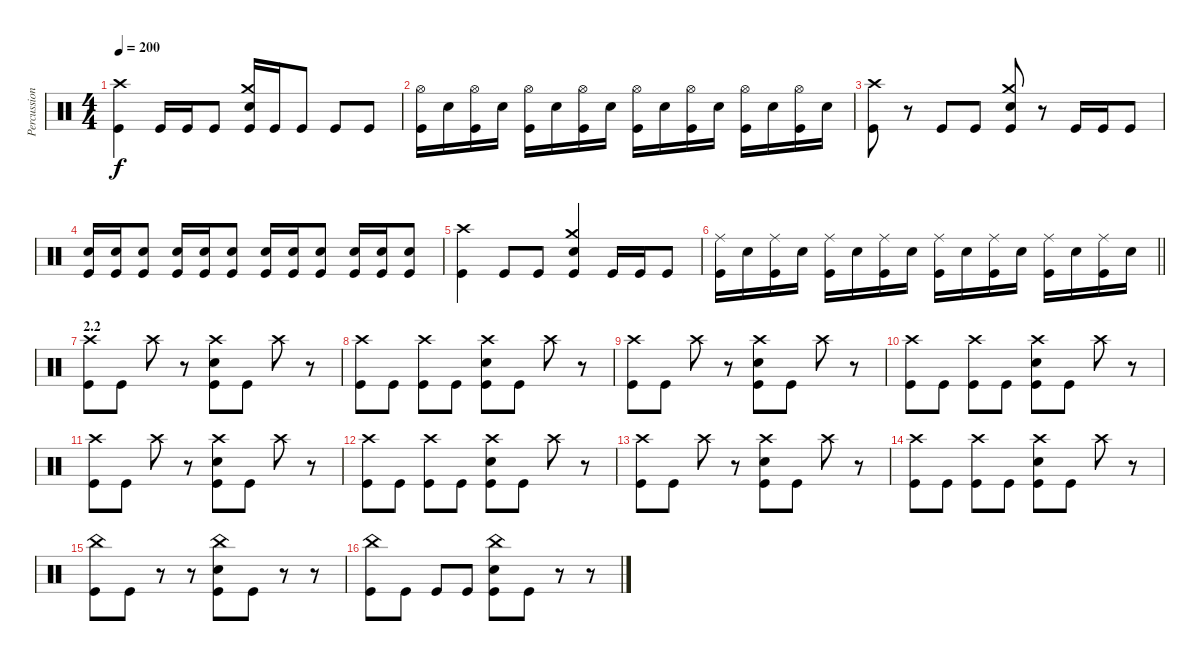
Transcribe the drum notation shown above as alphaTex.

\track ("Percussion" "Percussion") {instrument percussion}
\staff {score}
\articulation defaults
\ts (4 4)
\tempo 200
\clef neutral
\ks c
("Crash high (hit)" "Kick (hit)").4{dy f} "Kick (hit)".16 "Kick (hit)".16 "Kick (hit)".8 ("Crash medium (hit)" "Snare (hit) 2" "Kick (hit)").16 "Kick (hit)".16 "Kick (hit)".8 "Kick (hit)".8 "Kick (hit)".8 |
("Hi-Hat (open)" "Kick (hit)").16 "Snare (hit) 2".16 ("Hi-Hat (open)" "Kick (hit)").16 "Snare (hit) 2".16 ("Hi-Hat (open)" "Kick (hit)").16 "Snare (hit) 2".16 ("Hi-Hat (open)" "Kick (hit)").16 "Snare (hit) 2".16 ("Hi-Hat (open)" "Kick (hit)").16 "Snare (hit) 2".16 ("Hi-Hat (open)" "Kick (hit)").16 "Snare (hit) 2".16 ("Hi-Hat (open)" "Kick (hit)").16 "Snare (hit) 2".16 ("Hi-Hat (open)" "Kick (hit)").16 "Snare (hit) 2".16 |
("Crash high (hit)" "Kick (hit)").8 r.8 "Kick (hit)".8 "Kick (hit)".8 ("Crash medium (hit)" "Snare (hit) 2" "Kick (hit)").8 r.8 "Kick (hit)".16 "Kick (hit)".16 "Kick (hit)".8 |
("Snare (hit) 2" "Kick (hit)").16 ("Snare (hit) 2" "Kick (hit)").16 ("Snare (hit) 2" "Kick (hit)").8 ("Snare (hit) 2" "Kick (hit)").16 ("Snare (hit) 2" "Kick (hit)").16 ("Snare (hit) 2" "Kick (hit)").8 ("Snare (hit) 2" "Kick (hit)").16 ("Snare (hit) 2" "Kick (hit)").16 ("Snare (hit) 2" "Kick (hit)").8 ("Snare (hit) 2" "Kick (hit)").16 ("Snare (hit) 2" "Kick (hit)").16 ("Snare (hit) 2" "Kick (hit)").8 |
("Crash high (hit)" "Kick (hit)").4 "Kick (hit)".8 "Kick (hit)".8 ("Crash medium (hit)" "Snare (hit) 2" "Kick (hit)").4 "Kick (hit)".16 "Kick (hit)".16 "Kick (hit)".8 |
\barLineRight lightlight
("Ride (middle)" "Kick (hit)").16 "Snare (hit) 2".16 ("Ride (middle)" "Kick (hit)").16 "Snare (hit) 2".16 ("Ride (middle)" "Kick (hit)").16 "Snare (hit) 2".16 ("Ride (middle)" "Kick (hit)").16 "Snare (hit) 2".16 ("Ride (middle)" "Kick (hit)").16 "Snare (hit) 2".16 ("Ride (middle)" "Kick (hit)").16 "Snare (hit) 2".16 ("Ride (middle)" "Kick (hit)").16 "Snare (hit) 2".16 ("Ride (middle)" "Kick (hit)").16 "Snare (hit) 2".16 |
\section ("" "2.2")
("Crash high (hit)" "Kick (hit)").8 "Kick (hit)".8 "Crash high (hit)".8 r.8 ("Crash high (hit)" "Snare (hit) 2" "Kick (hit)").8 "Kick (hit)".8 "Crash high (hit)".8 r.8 |
("Crash high (hit)" "Kick (hit)").8 "Kick (hit)".8 ("Crash high (hit)" "Kick (hit)").8 "Kick (hit)".8 ("Crash high (hit)" "Snare (hit) 2" "Kick (hit)").8 "Kick (hit)".8 "Crash high (hit)".8 r.8 |
("Crash high (hit)" "Kick (hit)").8 "Kick (hit)".8 "Crash high (hit)".8 r.8 ("Crash high (hit)" "Snare (hit) 2" "Kick (hit)").8 "Kick (hit)".8 "Crash high (hit)".8 r.8 |
("Crash high (hit)" "Kick (hit)").8 "Kick (hit)".8 ("Crash high (hit)" "Kick (hit)").8 "Kick (hit)".8 ("Crash high (hit)" "Snare (hit) 2" "Kick (hit)").8 "Kick (hit)".8 "Crash high (hit)".8 r.8 |
("Crash high (hit)" "Kick (hit)").8 "Kick (hit)".8 "Crash high (hit)".8 r.8 ("Crash high (hit)" "Snare (hit) 2" "Kick (hit)").8 "Kick (hit)".8 "Crash high (hit)".8 r.8 |
("Crash high (hit)" "Kick (hit)").8 "Kick (hit)".8 ("Crash high (hit)" "Kick (hit)").8 "Kick (hit)".8 ("Crash high (hit)" "Snare (hit) 2" "Kick (hit)").8 "Kick (hit)".8 "Crash high (hit)".8 r.8 |
("Crash high (hit)" "Kick (hit)").8 "Kick (hit)".8 "Crash high (hit)".8 r.8 ("Crash high (hit)" "Snare (hit) 2" "Kick (hit)").8 "Kick (hit)".8 "Crash high (hit)".8 r.8 |
("Crash high (hit)" "Kick (hit)").8 "Kick (hit)".8 ("Crash high (hit)" "Kick (hit)").8 "Kick (hit)".8 ("Crash high (hit)" "Snare (hit) 2" "Kick (hit)").8 "Kick (hit)".8 "Crash high (hit)".8 r.8 |
("China (hit)" "Kick (hit)").8 "Kick (hit)".8 r.8 r.8 ("China (hit)" "Snare (hit) 2" "Kick (hit)").8 "Kick (hit)".8 r.8 r.8 |
("China (hit)" "Kick (hit)").8 "Kick (hit)".8 "Kick (hit)".8 "Kick (hit)".8 ("China (hit)" "Snare (hit) 2" "Kick (hit)").8 "Kick (hit)".8 r.8 r.8
